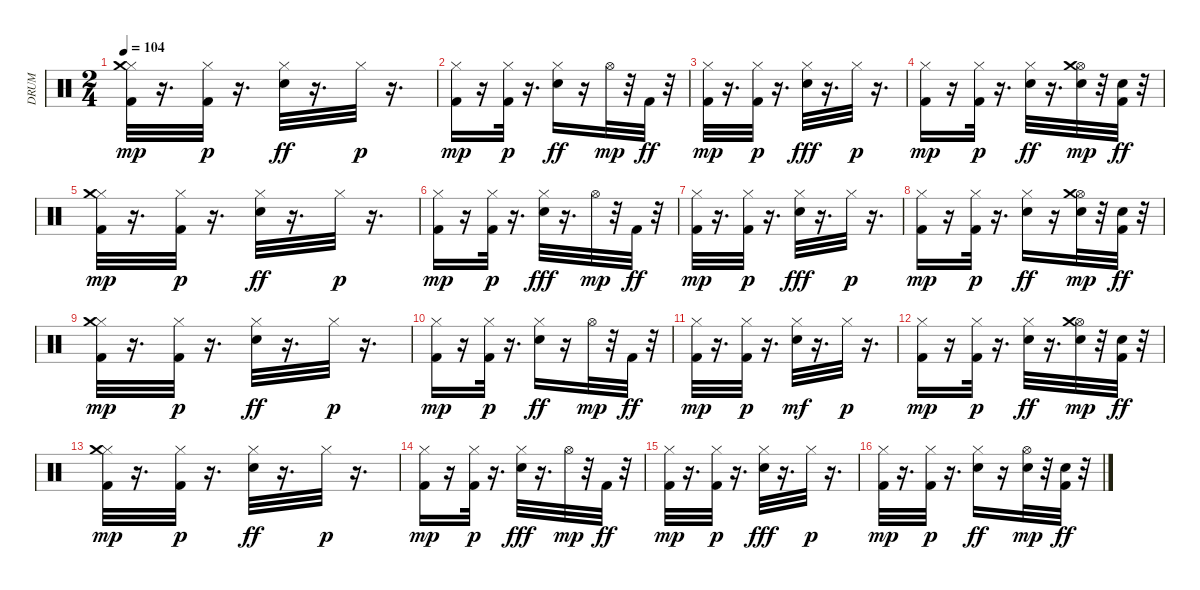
\track ("DRUM    " "DRUM    ") {instrument percussion}
\staff {score}
\articulation defaults
\ts (2 4)
\tempo 104
\clef neutral
\ks c
("Kick (hit) 2" "Hi-Hat (closed)" "Crash medium (hit)").32{dy mp} r.16{d} ("Kick (hit) 2" "Hi-Hat (closed)").32{dy p} r.16{d} ("Hi-Hat (closed)" "Snare (hit) 2").32{dy ff} r.16{d} "Hi-Hat (closed)".32{dy p} r.16{d} |
("Kick (hit) 2" "Hi-Hat (closed)").16{dy mp} r.16 ("Kick (hit) 2" "Hi-Hat (closed)").32{dy p} r.16{d} ("Hi-Hat (closed)" "Snare (hit) 2").16{dy ff} r.16 "Hi-Hat (open)".32{dy mp} r.32 "Kick (hit) 2".32{dy ff} r.32 |
("Kick (hit) 2" "Hi-Hat (closed)").32{dy mp} r.16{d} ("Kick (hit) 2" "Hi-Hat (closed)").32{dy p} r.16{d} ("Hi-Hat (closed)" "Snare (hit) 2").32{dy fff} r.16{d} "Hi-Hat (closed)".32{dy p} r.16{d} |
("Kick (hit) 2" "Hi-Hat (closed)").16{dy mp} r.16 ("Kick (hit) 2" "Hi-Hat (closed)").32{dy p} r.16{d} ("Hi-Hat (closed)" "Snare (hit) 2").32{dy ff} r.16{d} ("Hi-Hat (open)" "Snare (hit) 2" "Crash medium (hit)").32{dy mp} r.32 ("Kick (hit) 2" "Snare (hit) 2").32{dy ff} r.32 |
("Kick (hit) 2" "Hi-Hat (closed)" "Crash medium (hit)").32{dy mp} r.16{d} ("Kick (hit) 2" "Hi-Hat (closed)").32{dy p} r.16{d} ("Hi-Hat (closed)" "Snare (hit) 2").32{dy ff} r.16{d} "Hi-Hat (closed)".32{dy p} r.16{d} |
("Kick (hit) 2" "Hi-Hat (closed)").16{dy mp} r.16 ("Kick (hit) 2" "Hi-Hat (closed)").32{dy p} r.16{d} ("Hi-Hat (closed)" "Snare (hit) 2").32{dy fff} r.16{d} "Hi-Hat (open)".32{dy mp} r.32 "Kick (hit) 2".32{dy ff} r.32 |
("Kick (hit) 2" "Hi-Hat (closed)").32{dy mp} r.16{d} ("Kick (hit) 2" "Hi-Hat (closed)").32{dy p} r.16{d} ("Hi-Hat (closed)" "Snare (hit) 2").32{dy fff} r.16{d} "Hi-Hat (closed)".32{dy p} r.16{d} |
("Kick (hit) 2" "Hi-Hat (closed)").16{dy mp} r.16 ("Kick (hit) 2" "Hi-Hat (closed)").32{dy p} r.16{d} ("Hi-Hat (closed)" "Snare (hit) 2").16{dy ff} r.16 ("Hi-Hat (open)" "Snare (hit) 2" "Crash medium (hit)").32{dy mp} r.32 ("Kick (hit) 2" "Snare (hit) 2").32{dy ff} r.32 |
("Kick (hit) 2" "Hi-Hat (closed)" "Crash medium (hit)").32{dy mp} r.16{d} ("Kick (hit) 2" "Hi-Hat (closed)").32{dy p} r.16{d} ("Hi-Hat (closed)" "Snare (hit) 2").32{dy ff} r.16{d} "Hi-Hat (closed)".32{dy p} r.16{d} |
("Kick (hit) 2" "Hi-Hat (closed)").16{dy mp} r.16 ("Kick (hit) 2" "Hi-Hat (closed)").32{dy p} r.16{d} ("Hi-Hat (closed)" "Snare (hit) 2").16{dy ff} r.16 "Hi-Hat (open)".32{dy mp} r.32 "Kick (hit) 2".32{dy ff} r.32 |
("Kick (hit) 2" "Hi-Hat (closed)").32{dy mp} r.16{d} ("Kick (hit) 2" "Hi-Hat (closed)").32{dy p} r.16{d} ("Snare (hit) 2" "Hi-Hat (closed)").32{dy mf} r.16{d} "Hi-Hat (closed)".32{dy p} r.16{d} |
("Kick (hit) 2" "Hi-Hat (closed)").16{dy mp} r.16 ("Kick (hit) 2" "Hi-Hat (closed)").32{dy p} r.16{d} ("Hi-Hat (closed)" "Snare (hit) 2").32{dy ff} r.16{d} ("Hi-Hat (open)" "Snare (hit) 2" "Crash medium (hit)").32{dy mp} r.32 ("Kick (hit) 2" "Snare (hit) 2").32{dy ff} r.32 |
("Kick (hit) 2" "Hi-Hat (closed)" "Crash medium (hit)").32{dy mp} r.16{d} ("Kick (hit) 2" "Hi-Hat (closed)").32{dy p} r.16{d} ("Hi-Hat (closed)" "Snare (hit) 2").32{dy ff} r.16{d} "Hi-Hat (closed)".32{dy p} r.16{d} |
("Kick (hit) 2" "Hi-Hat (closed)").16{dy mp} r.16 ("Kick (hit) 2" "Hi-Hat (closed)").32{dy p} r.16{d} ("Hi-Hat (closed)" "Snare (hit) 2").32{dy fff} r.16{d} "Hi-Hat (open)".32{dy mp} r.32 "Kick (hit) 2".32{dy ff} r.32 |
("Kick (hit) 2" "Hi-Hat (closed)").32{dy mp} r.16{d} ("Kick (hit) 2" "Hi-Hat (closed)").32{dy p} r.16{d} ("Hi-Hat (closed)" "Snare (hit) 2").32{dy fff} r.16{d} "Hi-Hat (closed)".32{dy p} r.16{d} |
("Kick (hit) 2" "Hi-Hat (closed)").32{dy mp} r.16{d} ("Kick (hit) 2" "Hi-Hat (closed)").32{dy p} r.16{d} ("Hi-Hat (closed)" "Snare (hit) 2").16{dy ff} r.16 ("Hi-Hat (open)" "Snare (hit) 2").32{dy mp} r.32 ("Kick (hit) 2" "Snare (hit) 2").32{dy ff} r.32
